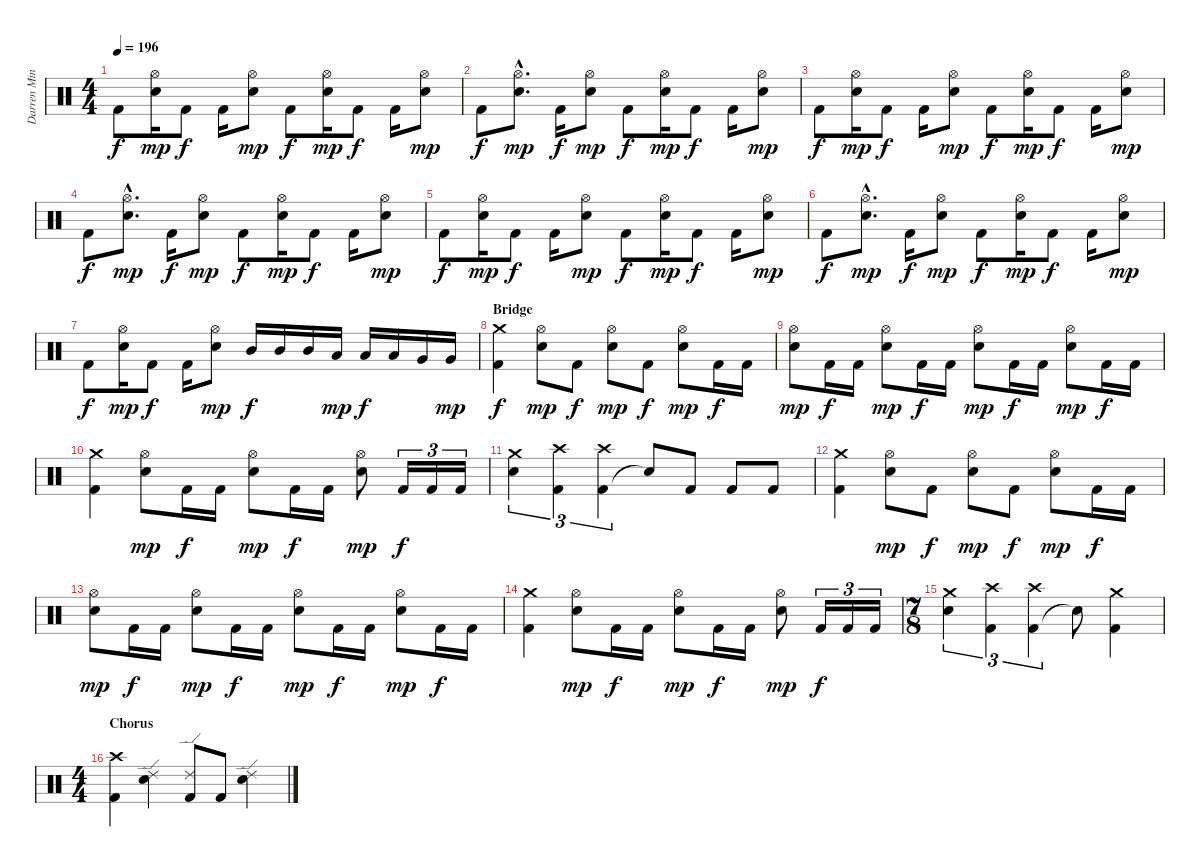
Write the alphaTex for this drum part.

\track ("Darren Minter" "Darren Min") {instrument percussion}
\staff {score}
\articulation defaults
\ts (4 4)
\tempo 196
\clef neutral
\ks c "Kick (hit) 2".8{dy f}
("Hi-Hat (open)" "Snare (hit) 2").16{dy mp} "Kick (hit) 2".8{dy f} "Kick (hit) 2".16 ("Hi-Hat (open)" "Snare (hit) 2").8{dy mp} "Kick (hit) 2".8{dy f} ("Hi-Hat (open)" "Snare (hit) 2").16{dy mp} "Kick (hit) 2".8{dy f} "Kick (hit) 2".16 ("Hi-Hat (open)" "Snare (hit) 2").8{dy mp} |
"Kick (hit) 2".8{dy f} ("Hi-Hat (open)"{hac} "Snare (hit) 2"{hac}).8{d dy mp} "Kick (hit) 2".16{dy f} ("Hi-Hat (open)" "Snare (hit) 2").8{dy mp} "Kick (hit) 2".8{dy f} ("Hi-Hat (open)" "Snare (hit) 2").16{dy mp} "Kick (hit) 2".8{dy f} "Kick (hit) 2".16 ("Hi-Hat (open)" "Snare (hit) 2").8{dy mp} |
"Kick (hit) 2".8{dy f} ("Hi-Hat (open)" "Snare (hit) 2").16{dy mp} "Kick (hit) 2".8{dy f} "Kick (hit) 2".16 ("Hi-Hat (open)" "Snare (hit) 2").8{dy mp} "Kick (hit) 2".8{dy f} ("Hi-Hat (open)" "Snare (hit) 2").16{dy mp} "Kick (hit) 2".8{dy f} "Kick (hit) 2".16 ("Hi-Hat (open)" "Snare (hit) 2").8{dy mp} |
"Kick (hit) 2".8{dy f} ("Hi-Hat (open)"{hac} "Snare (hit) 2"{hac}).8{d dy mp} "Kick (hit) 2".16{dy f} ("Hi-Hat (open)" "Snare (hit) 2").8{dy mp} "Kick (hit) 2".8{dy f} ("Hi-Hat (open)" "Snare (hit) 2").16{dy mp} "Kick (hit) 2".8{dy f} "Kick (hit) 2".16 ("Hi-Hat (open)" "Snare (hit) 2").8{dy mp} |
"Kick (hit) 2".8{dy f} ("Hi-Hat (open)" "Snare (hit) 2").16{dy mp} "Kick (hit) 2".8{dy f} "Kick (hit) 2".16 ("Hi-Hat (open)" "Snare (hit) 2").8{dy mp} "Kick (hit) 2".8{dy f} ("Hi-Hat (open)" "Snare (hit) 2").16{dy mp} "Kick (hit) 2".8{dy f} "Kick (hit) 2".16 ("Hi-Hat (open)" "Snare (hit) 2").8{dy mp} |
"Kick (hit) 2".8{dy f} ("Hi-Hat (open)"{hac} "Snare (hit) 2"{hac}).8{d dy mp} "Kick (hit) 2".16{dy f} ("Hi-Hat (open)" "Snare (hit) 2").8{dy mp} "Kick (hit) 2".8{dy f} ("Hi-Hat (open)" "Snare (hit) 2").16{dy mp} "Kick (hit) 2".8{dy f} "Kick (hit) 2".16 ("Hi-Hat (open)" "Snare (hit) 2").8{dy mp} |
"Kick (hit) 2".8{dy f} ("Hi-Hat (open)" "Snare (hit) 2").16{dy mp} "Kick (hit) 2".8{dy f} "Kick (hit) 2".16 ("Hi-Hat (open)" "Snare (hit) 2").8{dy mp} "Mid Tom (hit)".16{dy f} "Mid Tom (hit)".16 "Mid Tom (hit)".16 "Low Tom (hit)".16{dy mp} "Low Tom (hit)".16{dy f} "Low Tom (hit)".16 "Very Low Tom (hit)".16 "Very Low Tom (hit)".16{dy mp} |
\section ("" "Bridge")
("Kick (hit) 2" "Crash medium (hit)").4{dy f} ("Hi-Hat (open)" "Snare (hit) 2").8{dy mp} "Kick (hit) 2".8{dy f} ("Hi-Hat (open)" "Snare (hit) 2").8{dy mp} "Kick (hit) 2".8{dy f} ("Hi-Hat (open)" "Snare (hit) 2").8{dy mp} "Kick (hit) 2".16{dy f} "Kick (hit) 2".16 |
("Hi-Hat (open)" "Snare (hit) 2").8{dy mp} "Kick (hit) 2".16{dy f} "Kick (hit) 2".16 ("Hi-Hat (open)" "Snare (hit) 2").8{dy mp} "Kick (hit) 2".16{dy f} "Kick (hit) 2".16 ("Hi-Hat (open)" "Snare (hit) 2").8{dy mp} "Kick (hit) 2".16{dy f} "Kick (hit) 2".16 ("Hi-Hat (open)" "Snare (hit) 2").8{dy mp} "Kick (hit) 2".16{dy f} "Kick (hit) 2".16 |
("Kick (hit) 2" "Crash medium (hit)").4 ("Hi-Hat (open)" "Snare (hit) 2").8{dy mp} "Kick (hit) 2".16{dy f} "Kick (hit) 2".16 ("Hi-Hat (open)" "Snare (hit) 2").8{dy mp} "Kick (hit) 2".16{dy f} "Kick (hit) 2".16 ("Hi-Hat (open)" "Snare (hit) 2").8{dy mp} "Kick (hit) 2".16{tu (3 2) dy f} "Kick (hit) 2".16{tu (3 2)} "Kick (hit) 2".16{tu (3 2)} |
("Crash medium (hit)" "Snare (hit) 2").4{tu (3 2)} ("Kick (hit) 2" "Crash high (hit)").4{tu (3 2)} ("Kick (hit) 2" "Crash high (hit)").4{tu (3 2)} "Snare (hit)"{t}.8 "Kick (hit) 2".8 "Kick (hit) 2".8 "Kick (hit) 2".8 |
("Kick (hit) 2" "Crash medium (hit)").4 ("Hi-Hat (open)" "Snare (hit) 2").8{dy mp} "Kick (hit) 2".8{dy f} ("Hi-Hat (open)" "Snare (hit) 2").8{dy mp} "Kick (hit) 2".8{dy f} ("Hi-Hat (open)" "Snare (hit) 2").8{dy mp} "Kick (hit) 2".16{dy f} "Kick (hit) 2".16 |
("Hi-Hat (open)" "Snare (hit) 2").8{dy mp} "Kick (hit) 2".16{dy f} "Kick (hit) 2".16 ("Hi-Hat (open)" "Snare (hit) 2").8{dy mp} "Kick (hit) 2".16{dy f} "Kick (hit) 2".16 ("Hi-Hat (open)" "Snare (hit) 2").8{dy mp} "Kick (hit) 2".16{dy f} "Kick (hit) 2".16 ("Hi-Hat (open)" "Snare (hit) 2").8{dy mp} "Kick (hit) 2".16{dy f} "Kick (hit) 2".16 |
("Kick (hit) 2" "Crash medium (hit)").4 ("Hi-Hat (open)" "Snare (hit) 2").8{dy mp} "Kick (hit) 2".16{dy f} "Kick (hit) 2".16 ("Hi-Hat (open)" "Snare (hit) 2").8{dy mp} "Kick (hit) 2".16{dy f} "Kick (hit) 2".16 ("Hi-Hat (open)" "Snare (hit) 2").8{dy mp} "Kick (hit) 2".16{tu (3 2) dy f} "Kick (hit) 2".16{tu (3 2)} "Kick (hit) 2".16{tu (3 2)} |
\ts (7 8)
("Crash medium (hit)" "Snare (hit) 2").4{tu (3 2)} ("Kick (hit) 2" "Crash high (hit)").4{tu (3 2)} ("Kick (hit) 2" "Crash high (hit)").4{tu (3 2)} "Snare (hit)"{t}.8 ("Kick (hit) 2" "Crash medium (hit)").4 |
\ts (4 4)
\section ("" "Chorus")
("Kick (hit) 2" "Crash high (hit)").4 ("Ride (edge) 2" "Snare (hit) 2").4 ("Kick (hit) 2" "Ride (edge) 2").8 "Kick (hit) 2".8 ("Ride (edge) 2" "Snare (hit) 2").4
